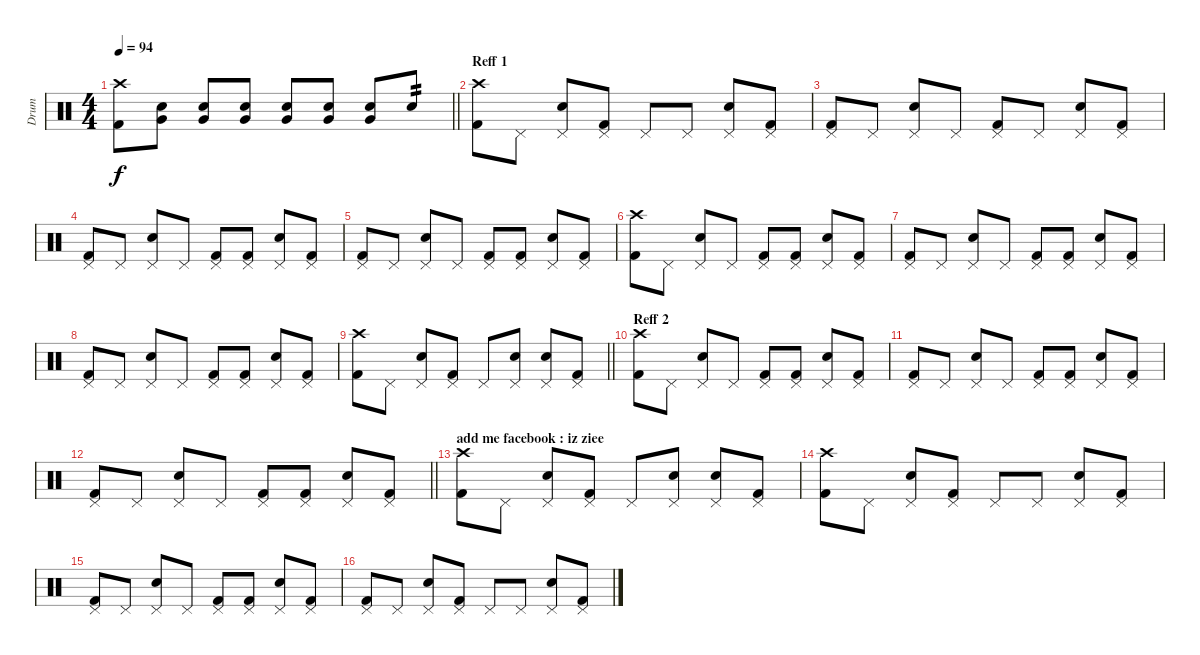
\track ("Drum" "Drum") {instrument percussion}
\staff {score}
\articulation defaults
\ts (4 4)
\tempo 94
\clef neutral
\barLineRight lightlight
\ks c
("Crash high (hit)" "Kick (hit) 2").8{dy f volume 16} ("Very Low Tom (hit)" "Electric Snare (hit)").8 ("Very Low Tom (hit)" "Electric Snare (hit)").8 ("Very Low Tom (hit)" "Electric Snare (hit)").8 ("Very Low Tom (hit)" "Electric Snare (hit)").8 ("Very Low Tom (hit)" "Electric Snare (hit)").8 ("Very Low Tom (hit)" "Electric Snare (hit)").8 "Electric Snare (hit)".8{tp 2} |
\section ("" "Reff 1")
("Crash high (hit)" "Kick (hit) 2").8 "Pedal Hi-Hat (hit)".8 ("Pedal Hi-Hat (hit)" "Electric Snare (hit)").8 ("Pedal Hi-Hat (hit)" "Kick (hit) 2").8 "Pedal Hi-Hat (hit)".8 "Pedal Hi-Hat (hit)".8 ("Pedal Hi-Hat (hit)" "Electric Snare (hit)").8 ("Pedal Hi-Hat (hit)" "Kick (hit) 2").8 |
("Pedal Hi-Hat (hit)" "Kick (hit) 2").8 "Pedal Hi-Hat (hit)".8 ("Pedal Hi-Hat (hit)" "Electric Snare (hit)").8 "Pedal Hi-Hat (hit)".8 ("Pedal Hi-Hat (hit)" "Kick (hit) 2").8 "Pedal Hi-Hat (hit)".8 ("Pedal Hi-Hat (hit)" "Electric Snare (hit)").8 ("Pedal Hi-Hat (hit)" "Kick (hit) 2").8 |
("Pedal Hi-Hat (hit)" "Kick (hit) 2").8 "Pedal Hi-Hat (hit)".8 ("Pedal Hi-Hat (hit)" "Electric Snare (hit)").8 "Pedal Hi-Hat (hit)".8 ("Pedal Hi-Hat (hit)" "Kick (hit) 2").8 ("Pedal Hi-Hat (hit)" "Kick (hit) 2").8 ("Pedal Hi-Hat (hit)" "Electric Snare (hit)").8 ("Pedal Hi-Hat (hit)" "Kick (hit) 2").8 |
("Pedal Hi-Hat (hit)" "Kick (hit) 2").8 "Pedal Hi-Hat (hit)".8 ("Pedal Hi-Hat (hit)" "Electric Snare (hit)").8 "Pedal Hi-Hat (hit)".8 ("Pedal Hi-Hat (hit)" "Kick (hit) 2").8 ("Pedal Hi-Hat (hit)" "Kick (hit) 2").8 ("Pedal Hi-Hat (hit)" "Electric Snare (hit)").8 ("Pedal Hi-Hat (hit)" "Kick (hit) 2").8 |
("Crash high (hit)" "Kick (hit) 2").8 "Pedal Hi-Hat (hit)".8 ("Pedal Hi-Hat (hit)" "Electric Snare (hit)").8 "Pedal Hi-Hat (hit)".8 ("Pedal Hi-Hat (hit)" "Kick (hit) 2").8 ("Pedal Hi-Hat (hit)" "Kick (hit) 2").8 ("Pedal Hi-Hat (hit)" "Electric Snare (hit)").8 ("Pedal Hi-Hat (hit)" "Kick (hit) 2").8 |
("Pedal Hi-Hat (hit)" "Kick (hit) 2").8 "Pedal Hi-Hat (hit)".8 ("Pedal Hi-Hat (hit)" "Electric Snare (hit)").8 "Pedal Hi-Hat (hit)".8 ("Pedal Hi-Hat (hit)" "Kick (hit) 2").8 ("Pedal Hi-Hat (hit)" "Kick (hit) 2").8 ("Pedal Hi-Hat (hit)" "Electric Snare (hit)").8 ("Pedal Hi-Hat (hit)" "Kick (hit) 2").8 |
("Pedal Hi-Hat (hit)" "Kick (hit) 2").8 "Pedal Hi-Hat (hit)".8 ("Pedal Hi-Hat (hit)" "Electric Snare (hit)").8 "Pedal Hi-Hat (hit)".8 ("Pedal Hi-Hat (hit)" "Kick (hit) 2").8 ("Pedal Hi-Hat (hit)" "Kick (hit) 2").8 ("Pedal Hi-Hat (hit)" "Electric Snare (hit)").8 ("Pedal Hi-Hat (hit)" "Kick (hit) 2").8 |
\barLineRight lightlight
("Crash high (hit)" "Kick (hit) 2").8 "Pedal Hi-Hat (hit)".8 ("Pedal Hi-Hat (hit)" "Electric Snare (hit)").8 ("Pedal Hi-Hat (hit)" "Kick (hit) 2").8 "Pedal Hi-Hat (hit)".8 ("Pedal Hi-Hat (hit)" "Electric Snare (hit)").8 ("Pedal Hi-Hat (hit)" "Electric Snare (hit)").8 ("Pedal Hi-Hat (hit)" "Kick (hit) 2").8 |
\section ("" "Reff 2")
("Crash high (hit)" "Kick (hit) 2").8 "Pedal Hi-Hat (hit)".8 ("Pedal Hi-Hat (hit)" "Electric Snare (hit)").8 "Pedal Hi-Hat (hit)".8 ("Pedal Hi-Hat (hit)" "Kick (hit) 2").8 ("Pedal Hi-Hat (hit)" "Kick (hit) 2").8 ("Pedal Hi-Hat (hit)" "Electric Snare (hit)").8 ("Pedal Hi-Hat (hit)" "Kick (hit) 2").8 |
("Pedal Hi-Hat (hit)" "Kick (hit) 2").8 "Pedal Hi-Hat (hit)".8 ("Pedal Hi-Hat (hit)" "Electric Snare (hit)").8 "Pedal Hi-Hat (hit)".8 ("Pedal Hi-Hat (hit)" "Kick (hit) 2").8 ("Pedal Hi-Hat (hit)" "Kick (hit) 2").8 ("Pedal Hi-Hat (hit)" "Electric Snare (hit)").8 ("Pedal Hi-Hat (hit)" "Kick (hit) 2").8 |
\barLineRight lightlight
("Pedal Hi-Hat (hit)" "Kick (hit) 2").8 "Pedal Hi-Hat (hit)".8 ("Pedal Hi-Hat (hit)" "Electric Snare (hit)").8 "Pedal Hi-Hat (hit)".8 ("Pedal Hi-Hat (hit)" "Kick (hit) 2").8 ("Pedal Hi-Hat (hit)" "Kick (hit) 2").8 ("Pedal Hi-Hat (hit)" "Electric Snare (hit)").8 ("Pedal Hi-Hat (hit)" "Kick (hit) 2").8 |
\section ("" "add me facebook : iz ziee")
("Crash high (hit)" "Kick (hit) 2").8 "Pedal Hi-Hat (hit)".8 ("Pedal Hi-Hat (hit)" "Electric Snare (hit)").8 ("Pedal Hi-Hat (hit)" "Kick (hit) 2").8 "Pedal Hi-Hat (hit)".8 ("Pedal Hi-Hat (hit)" "Electric Snare (hit)").8 ("Pedal Hi-Hat (hit)" "Electric Snare (hit)").8 ("Pedal Hi-Hat (hit)" "Kick (hit) 2").8 |
("Crash high (hit)" "Kick (hit) 2").8 "Pedal Hi-Hat (hit)".8 ("Pedal Hi-Hat (hit)" "Electric Snare (hit)").8 ("Pedal Hi-Hat (hit)" "Kick (hit) 2").8 "Pedal Hi-Hat (hit)".8 "Pedal Hi-Hat (hit)".8 ("Pedal Hi-Hat (hit)" "Electric Snare (hit)").8 ("Pedal Hi-Hat (hit)" "Kick (hit) 2").8 |
("Pedal Hi-Hat (hit)" "Kick (hit) 2").8 "Pedal Hi-Hat (hit)".8 ("Pedal Hi-Hat (hit)" "Electric Snare (hit)").8 "Pedal Hi-Hat (hit)".8 ("Pedal Hi-Hat (hit)" "Kick (hit) 2").8 ("Pedal Hi-Hat (hit)" "Kick (hit) 2").8 ("Pedal Hi-Hat (hit)" "Electric Snare (hit)").8 ("Pedal Hi-Hat (hit)" "Kick (hit) 2").8 |
("Pedal Hi-Hat (hit)" "Kick (hit) 2").8 "Pedal Hi-Hat (hit)".8 ("Pedal Hi-Hat (hit)" "Electric Snare (hit)").8 ("Pedal Hi-Hat (hit)" "Kick (hit) 2").8 "Pedal Hi-Hat (hit)".8 "Pedal Hi-Hat (hit)".8 ("Pedal Hi-Hat (hit)" "Electric Snare (hit)").8 ("Pedal Hi-Hat (hit)" "Kick (hit) 2").8
